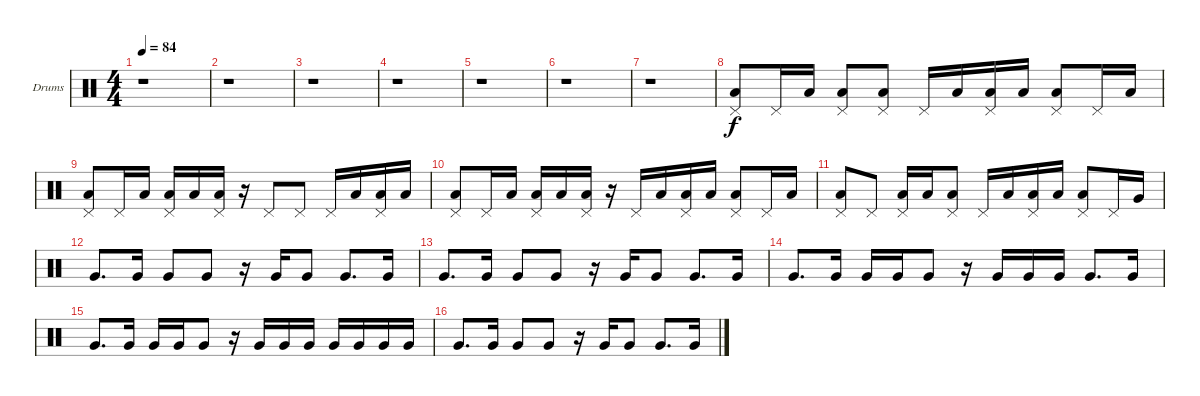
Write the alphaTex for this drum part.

\defaultSystemsLayout 4
\bracketExtendMode nobrackets
\firstSystemTrackNameOrientation horizontal
\otherSystemsTrackNameOrientation horizontal
\track ("Dave Krusen" "Drums") {instrument percussion}
\staff {score}
\articulation defaults
\ts (4 4)
\tempo 84
\clef neutral
\ks c
r.1{dy f} |
r.1 |
r.1 |
r.1 |
r.1 |
r.1 |
r.1 |
("Pedal Hi-Hat (hit)" "Low Tom (hit)").8 "Pedal Hi-Hat (hit)".16 "Low Tom (hit)".16 ("Pedal Hi-Hat (hit)" "Low Tom (hit)").8 ("Pedal Hi-Hat (hit)" "Low Tom (hit)").8 "Pedal Hi-Hat (hit)".16 "Low Tom (hit)".16 ("Pedal Hi-Hat (hit)" "Low Tom (hit)").16 "Low Tom (hit)".16 ("Pedal Hi-Hat (hit)" "Low Tom (hit)").8 "Pedal Hi-Hat (hit)".16 "Low Tom (hit)".16 |
("Pedal Hi-Hat (hit)" "Low Tom (hit)").8 "Pedal Hi-Hat (hit)".16 "Low Tom (hit)".16 ("Pedal Hi-Hat (hit)" "Low Tom (hit)").16 "Low Tom (hit)".16 ("Pedal Hi-Hat (hit)" "Low Tom (hit)").16 r.16 "Pedal Hi-Hat (hit)".8 "Pedal Hi-Hat (hit)".8 "Pedal Hi-Hat (hit)".16 "Low Tom (hit)".16 ("Pedal Hi-Hat (hit)" "Low Tom (hit)").16 "Low Tom (hit)".16 |
("Pedal Hi-Hat (hit)" "Low Tom (hit)").8 "Pedal Hi-Hat (hit)".16 "Low Tom (hit)".16 ("Pedal Hi-Hat (hit)" "Low Tom (hit)").16 "Low Tom (hit)".16 ("Pedal Hi-Hat (hit)" "Low Tom (hit)").16 r.16 "Pedal Hi-Hat (hit)".16 "Low Tom (hit)".16 ("Pedal Hi-Hat (hit)" "Low Tom (hit)").16 "Low Tom (hit)".16 ("Pedal Hi-Hat (hit)" "Low Tom (hit)").8 "Pedal Hi-Hat (hit)".16 "Low Tom (hit)".16 |
("Pedal Hi-Hat (hit)" "Low Tom (hit)").8 "Pedal Hi-Hat (hit)".8 ("Pedal Hi-Hat (hit)" "Low Tom (hit)").16 "Low Tom (hit)".16 ("Pedal Hi-Hat (hit)" "Low Tom (hit)").8 "Pedal Hi-Hat (hit)".16 "Low Tom (hit)".16 ("Pedal Hi-Hat (hit)" "Low Tom (hit)").16 "Low Tom (hit)".16 ("Pedal Hi-Hat (hit)" "Low Tom (hit)").8 "Pedal Hi-Hat (hit)".16 "Very Low Tom (hit)".16 |
"Very Low Tom (hit)".8{d} "Very Low Tom (hit)".16 "Very Low Tom (hit)".8 "Very Low Tom (hit)".8 r.16 "Very Low Tom (hit)".16 "Very Low Tom (hit)".8 "Very Low Tom (hit)".8{d} "Very Low Tom (hit)".16 |
"Very Low Tom (hit)".8{d} "Very Low Tom (hit)".16 "Very Low Tom (hit)".8 "Very Low Tom (hit)".8 r.16 "Very Low Tom (hit)".16 "Very Low Tom (hit)".8 "Very Low Tom (hit)".8{d} "Very Low Tom (hit)".16 |
"Very Low Tom (hit)".8{d} "Very Low Tom (hit)".16 "Very Low Tom (hit)".16 "Very Low Tom (hit)".16 "Very Low Tom (hit)".8 r.16 "Very Low Tom (hit)".16 "Very Low Tom (hit)".16 "Very Low Tom (hit)".16 "Very Low Tom (hit)".8{d} "Very Low Tom (hit)".16 |
"Very Low Tom (hit)".8{d} "Very Low Tom (hit)".16 "Very Low Tom (hit)".16 "Very Low Tom (hit)".16 "Very Low Tom (hit)".8 r.16 "Very Low Tom (hit)".16 "Very Low Tom (hit)".16 "Very Low Tom (hit)".16 "Very Low Tom (hit)".16 "Very Low Tom (hit)".16 "Very Low Tom (hit)".16 "Very Low Tom (hit)".16 |
"Very Low Tom (hit)".8{d} "Very Low Tom (hit)".16 "Very Low Tom (hit)".8 "Very Low Tom (hit)".8 r.16 "Very Low Tom (hit)".16 "Very Low Tom (hit)".8 "Very Low Tom (hit)".8{d} "Very Low Tom (hit)".16
